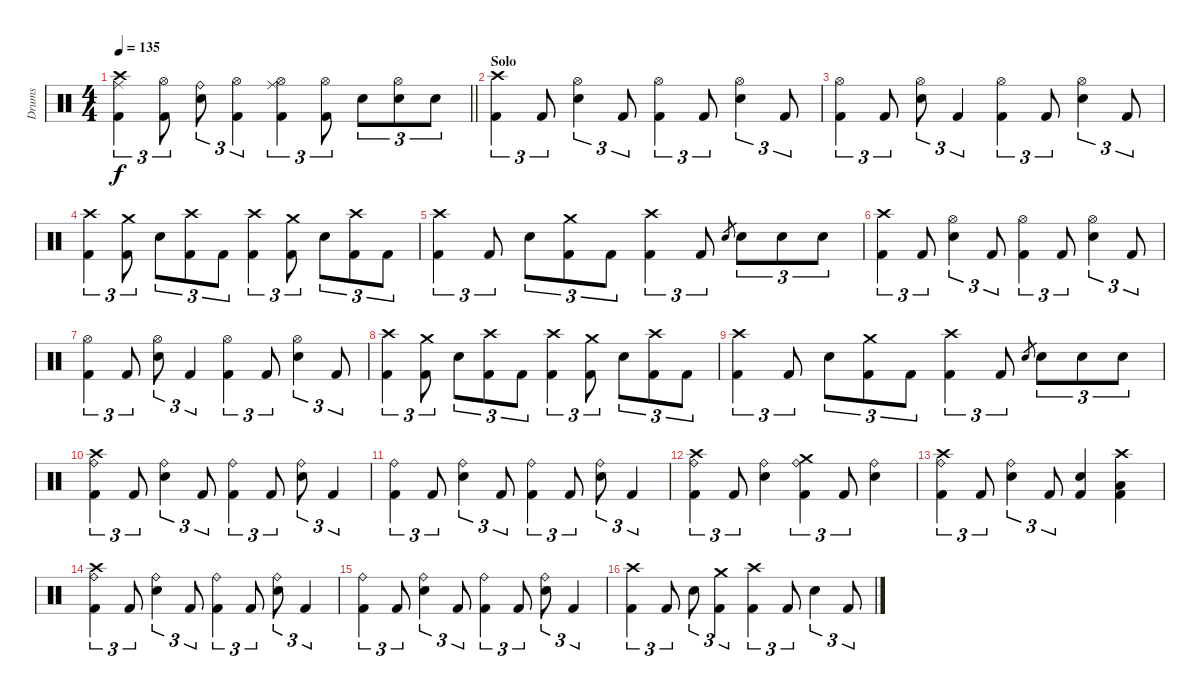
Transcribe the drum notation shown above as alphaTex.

\track ("Drums" "Drums") {instrument percussion}
\staff {score}
\articulation defaults
\ts (4 4)
\tempo 135
\clef neutral
\barLineRight lightlight
\ks c
("Crash high (hit)" "Ride (middle)" "Kick (hit) 2").4{tu (3 2) dy f} ("Hi-Hat (open)" "Kick (hit) 2").8{tu (3 2)} ("Ride (bell)" "Snare (hit) 2").8{tu (3 2)} ("Hi-Hat (open)" "Kick (hit) 2").4{tu (3 2)} ("Hi-Hat (open)" "Ride (middle)" "Kick (hit) 2").4{tu (3 2)} ("Hi-Hat (open)" "Kick (hit) 2").8{tu (3 2)} "Snare (hit) 2".8{tu (3 2)} ("Hi-Hat (open)" "Snare (hit) 2").8{tu (3 2)} "Snare (hit) 2".8{tu (3 2)} |
\section ("" "Solo")
("Crash high (hit)" "Kick (hit) 2").4{tu (3 2)} "Kick (hit) 2".8{tu (3 2)} ("Hi-Hat (open)" "Snare (hit) 2").4{tu (3 2)} "Kick (hit) 2".8{tu (3 2)} ("Hi-Hat (open)" "Kick (hit) 2").4{tu (3 2)} "Kick (hit) 2".8{tu (3 2)} ("Hi-Hat (open)" "Snare (hit) 2").4{tu (3 2)} "Kick (hit) 2".8{tu (3 2)} |
("Hi-Hat (open)" "Kick (hit) 2").4{tu (3 2)} "Kick (hit) 2".8{tu (3 2)} ("Hi-Hat (open)" "Snare (hit) 2").8{tu (3 2)} "Kick (hit) 2".4{tu (3 2)} ("Hi-Hat (open)" "Kick (hit) 2").4{tu (3 2)} "Kick (hit) 2".8{tu (3 2)} ("Hi-Hat (open)" "Snare (hit) 2").4{tu (3 2)} "Kick (hit) 2".8{tu (3 2)} |
("Crash high (hit)" "Kick (hit) 2").4{tu (3 2)} ("Crash medium (hit)" "Kick (hit) 2").8{tu (3 2)} "Snare (hit) 2".8{tu (3 2)} ("Crash high (hit)" "Kick (hit) 2").8{tu (3 2)} "Kick (hit) 2".8{tu (3 2)} ("Crash high (hit)" "Kick (hit) 2").4{tu (3 2)} ("Crash medium (hit)" "Kick (hit) 2").8{tu (3 2)} "Snare (hit) 2".8{tu (3 2)} ("Crash high (hit)" "Kick (hit) 2").8{tu (3 2)} "Kick (hit) 2".8{tu (3 2)} |
("Crash high (hit)" "Kick (hit) 2").4{tu (3 2)} "Kick (hit) 2".8{tu (3 2)} "Snare (hit) 2".8{tu (3 2)} ("Crash medium (hit)" "Kick (hit) 2").8{tu (3 2)} "Kick (hit) 2".8{tu (3 2)} ("Crash high (hit)" "Kick (hit) 2").4{tu (3 2)} "Kick (hit) 2".8{tu (3 2)} "Snare (hit) 2".8{gr} "Snare (hit) 2".8{tu (3 2)} "Snare (hit) 2".8{tu (3 2)} "Snare (hit) 2".8{tu (3 2)} |
("Crash high (hit)" "Kick (hit) 2").4{tu (3 2)} "Kick (hit) 2".8{tu (3 2)} ("Hi-Hat (open)" "Snare (hit) 2").4{tu (3 2)} "Kick (hit) 2".8{tu (3 2)} ("Hi-Hat (open)" "Kick (hit) 2").4{tu (3 2)} "Kick (hit) 2".8{tu (3 2)} ("Hi-Hat (open)" "Snare (hit) 2").4{tu (3 2)} "Kick (hit) 2".8{tu (3 2)} |
("Hi-Hat (open)" "Kick (hit) 2").4{tu (3 2)} "Kick (hit) 2".8{tu (3 2)} ("Hi-Hat (open)" "Snare (hit) 2").8{tu (3 2)} "Kick (hit) 2".4{tu (3 2)} ("Hi-Hat (open)" "Kick (hit) 2").4{tu (3 2)} "Kick (hit) 2".8{tu (3 2)} ("Hi-Hat (open)" "Snare (hit) 2").4{tu (3 2)} "Kick (hit) 2".8{tu (3 2)} |
("Crash high (hit)" "Kick (hit) 2").4{tu (3 2)} ("Crash medium (hit)" "Kick (hit) 2").8{tu (3 2)} "Snare (hit) 2".8{tu (3 2)} ("Crash high (hit)" "Kick (hit) 2").8{tu (3 2)} "Kick (hit) 2".8{tu (3 2)} ("Crash high (hit)" "Kick (hit) 2").4{tu (3 2)} ("Crash medium (hit)" "Kick (hit) 2").8{tu (3 2)} "Snare (hit) 2".8{tu (3 2)} ("Crash high (hit)" "Kick (hit) 2").8{tu (3 2)} "Kick (hit) 2".8{tu (3 2)} |
("Crash high (hit)" "Kick (hit) 2").4{tu (3 2)} "Kick (hit) 2".8{tu (3 2)} "Snare (hit) 2".8{tu (3 2)} ("Crash medium (hit)" "Kick (hit) 2").8{tu (3 2)} "Kick (hit) 2".8{tu (3 2)} ("Crash high (hit)" "Kick (hit) 2").4{tu (3 2)} "Kick (hit) 2".8{tu (3 2)} "Snare (hit) 2".8{gr} "Snare (hit) 2".8{tu (3 2)} "Snare (hit) 2".8{tu (3 2)} "Snare (hit) 2".8{tu (3 2)} |
("Crash high (hit)" "Ride (bell)" "Kick (hit) 2").4{tu (3 2)} "Kick (hit) 2".8{tu (3 2)} ("Ride (bell)" "Snare (hit) 2").4{tu (3 2)} "Kick (hit) 2".8{tu (3 2)} ("Ride (bell)" "Kick (hit) 2").4{tu (3 2)} "Kick (hit) 2".8{tu (3 2)} ("Ride (bell)" "Snare (hit) 2").8{tu (3 2)} "Kick (hit) 2".4{tu (3 2)} |
("Ride (bell)" "Kick (hit) 2").4{tu (3 2)} "Kick (hit) 2".8{tu (3 2)} ("Ride (bell)" "Snare (hit) 2").4{tu (3 2)} "Kick (hit) 2".8{tu (3 2)} ("Ride (bell)" "Kick (hit) 2").4{tu (3 2)} "Kick (hit) 2".8{tu (3 2)} ("Ride (bell)" "Snare (hit) 2").8{tu (3 2)} "Kick (hit) 2".4{tu (3 2)} |
("Crash high (hit)" "Ride (bell)" "Kick (hit) 2").4{tu (3 2)} "Kick (hit) 2".8{tu (3 2)} ("Ride (bell)" "Snare (hit) 2").4 ("Crash medium (hit)" "Ride (bell)" "Kick (hit) 2").4{tu (3 2)} "Kick (hit) 2".8{tu (3 2)} ("Ride (bell)" "Snare (hit) 2").4 |
("Crash high (hit)" "Ride (bell)" "Kick (hit) 2").4{tu (3 2)} "Kick (hit) 2".8{tu (3 2)} ("Ride (bell)" "Snare (hit) 2").4{tu (3 2)} "Kick (hit) 2".8{tu (3 2)} ("Snare (hit) 2" "Kick (hit) 2").4 ("Crash high (hit)" "Low Tom (hit)" "Kick (hit) 2").4 |
("Crash high (hit)" "Ride (bell)" "Kick (hit) 2").4{tu (3 2)} "Kick (hit) 2".8{tu (3 2)} ("Ride (bell)" "Snare (hit) 2").4{tu (3 2)} "Kick (hit) 2".8{tu (3 2)} ("Ride (bell)" "Kick (hit) 2").4{tu (3 2)} "Kick (hit) 2".8{tu (3 2)} ("Ride (bell)" "Snare (hit) 2").8{tu (3 2)} "Kick (hit) 2".4{tu (3 2)} |
("Ride (bell)" "Kick (hit) 2").4{tu (3 2)} "Kick (hit) 2".8{tu (3 2)} ("Ride (bell)" "Snare (hit) 2").4{tu (3 2)} "Kick (hit) 2".8{tu (3 2)} ("Ride (bell)" "Kick (hit) 2").4{tu (3 2)} "Kick (hit) 2".8{tu (3 2)} ("Ride (bell)" "Snare (hit) 2").8{tu (3 2)} "Kick (hit) 2".4{tu (3 2)} |
("Crash high (hit)" "Kick (hit) 2").4{tu (3 2)} "Kick (hit) 2".8{tu (3 2)} "Snare (hit) 2".8{tu (3 2)} ("Crash medium (hit)" "Kick (hit) 2").4{tu (3 2)} ("Crash high (hit)" "Kick (hit) 2").4{tu (3 2)} "Kick (hit) 2".8{tu (3 2)} "Snare (hit) 2".4{tu (3 2)} "Kick (hit) 2".8{tu (3 2)}
